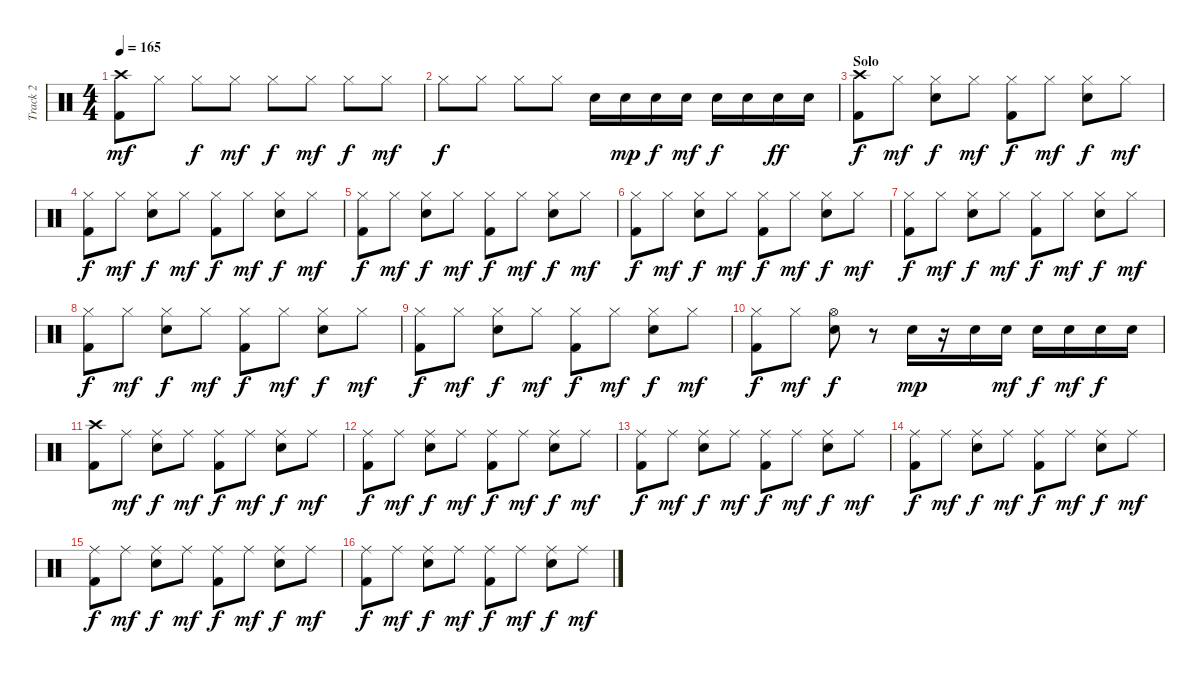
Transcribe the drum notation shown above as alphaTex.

\track ("Track 2" "Track 2") {instrument percussion}
\staff {score}
\articulation defaults
\ts (4 4)
\tempo 165
\clef neutral
\ks c
("Crash high (hit)" "Kick (hit) 2").8{dy mf} "Hi-Hat (closed)".8 "Hi-Hat (closed)".8{dy f} "Hi-Hat (closed)".8{dy mf} "Hi-Hat (closed)".8{dy f} "Hi-Hat (closed)".8{dy mf} "Hi-Hat (closed)".8{dy f} "Hi-Hat (closed)".8{dy mf} |
"Hi-Hat (closed)".8{dy f} "Hi-Hat (closed)".8 "Hi-Hat (closed)".8 "Hi-Hat (closed)".8 "Electric Snare (hit)".16 "Electric Snare (hit)".16{dy mp} "Electric Snare (hit)".16{dy f} "Electric Snare (hit)".16{dy mf} "Electric Snare (hit)".16{dy f} "Electric Snare (hit)".16 "Electric Snare (hit)".16{dy ff} "Electric Snare (hit)".16 |
\section ("" "Solo")
("Crash high (hit)" "Kick (hit) 2").8{dy f} "Hi-Hat (closed)".8{dy mf} ("Hi-Hat (closed)" "Electric Snare (hit)").8{dy f} "Hi-Hat (closed)".8{dy mf} ("Hi-Hat (closed)" "Kick (hit) 2").8{dy f} "Hi-Hat (closed)".8{dy mf} ("Hi-Hat (closed)" "Electric Snare (hit)").8{dy f} "Hi-Hat (closed)".8{dy mf} |
("Hi-Hat (closed)" "Kick (hit) 2").8{dy f} "Hi-Hat (closed)".8{dy mf} ("Hi-Hat (closed)" "Electric Snare (hit)").8{dy f} "Hi-Hat (closed)".8{dy mf} ("Hi-Hat (closed)" "Kick (hit) 2").8{dy f} "Hi-Hat (closed)".8{dy mf} ("Hi-Hat (closed)" "Electric Snare (hit)").8{dy f} "Hi-Hat (closed)".8{dy mf} |
("Hi-Hat (closed)" "Kick (hit) 2").8{dy f} "Hi-Hat (closed)".8{dy mf} ("Hi-Hat (closed)" "Electric Snare (hit)").8{dy f} "Hi-Hat (closed)".8{dy mf} ("Hi-Hat (closed)" "Kick (hit) 2").8{dy f} "Hi-Hat (closed)".8{dy mf} ("Hi-Hat (closed)" "Electric Snare (hit)").8{dy f} "Hi-Hat (closed)".8{dy mf} |
("Hi-Hat (closed)" "Kick (hit) 2").8{dy f} "Hi-Hat (closed)".8{dy mf} ("Hi-Hat (closed)" "Electric Snare (hit)").8{dy f} "Hi-Hat (closed)".8{dy mf} ("Hi-Hat (closed)" "Kick (hit) 2").8{dy f} "Hi-Hat (closed)".8{dy mf} ("Hi-Hat (closed)" "Electric Snare (hit)").8{dy f} "Hi-Hat (closed)".8{dy mf} |
("Hi-Hat (closed)" "Kick (hit) 2").8{dy f} "Hi-Hat (closed)".8{dy mf} ("Hi-Hat (closed)" "Electric Snare (hit)").8{dy f} "Hi-Hat (closed)".8{dy mf} ("Hi-Hat (closed)" "Kick (hit) 2").8{dy f} "Hi-Hat (closed)".8{dy mf} ("Hi-Hat (closed)" "Electric Snare (hit)").8{dy f} "Hi-Hat (closed)".8{dy mf} |
("Hi-Hat (closed)" "Kick (hit) 2").8{dy f} "Hi-Hat (closed)".8{dy mf} ("Hi-Hat (closed)" "Electric Snare (hit)").8{dy f} "Hi-Hat (closed)".8{dy mf} ("Hi-Hat (closed)" "Kick (hit) 2").8{dy f} "Hi-Hat (closed)".8{dy mf} ("Hi-Hat (closed)" "Electric Snare (hit)").8{dy f} "Hi-Hat (closed)".8{dy mf} |
("Hi-Hat (closed)" "Kick (hit) 2").8{dy f} "Hi-Hat (closed)".8{dy mf} ("Hi-Hat (closed)" "Electric Snare (hit)").8{dy f} "Hi-Hat (closed)".8{dy mf} ("Hi-Hat (closed)" "Kick (hit) 2").8{dy f} "Hi-Hat (closed)".8{dy mf} ("Hi-Hat (closed)" "Electric Snare (hit)").8{dy f} "Hi-Hat (closed)".8{dy mf} |
("Hi-Hat (closed)" "Kick (hit) 2").8{dy f} "Hi-Hat (closed)".8{dy mf} ("Hi-Hat (open)" "Electric Snare (hit)").8{dy f} r.8 "Electric Snare (hit)".16{dy mp} r.16 "Electric Snare (hit)".16 "Electric Snare (hit)".16{dy mf} "Electric Snare (hit)".16{dy f} "Electric Snare (hit)".16{dy mf} "Electric Snare (hit)".16{dy f} "Electric Snare (hit)".16 |
("Crash high (hit)" "Kick (hit) 2").8 "Ride (middle)".8{dy mf} ("Ride (middle)" "Electric Snare (hit)").8{dy f} "Ride (middle)".8{dy mf} ("Ride (middle)" "Kick (hit) 2").8{dy f} "Ride (middle)".8{dy mf} ("Ride (middle)" "Electric Snare (hit)").8{dy f} "Ride (middle)".8{dy mf} |
("Ride (middle)" "Kick (hit) 2").8{dy f} "Ride (middle)".8{dy mf} ("Ride (middle)" "Electric Snare (hit)").8{dy f} "Ride (middle)".8{dy mf} ("Ride (middle)" "Kick (hit) 2").8{dy f} "Ride (middle)".8{dy mf} ("Ride (middle)" "Electric Snare (hit)").8{dy f} "Ride (middle)".8{dy mf} |
("Ride (middle)" "Kick (hit) 2").8{dy f} "Ride (middle)".8{dy mf} ("Ride (middle)" "Electric Snare (hit)").8{dy f} "Ride (middle)".8{dy mf} ("Ride (middle)" "Kick (hit) 2").8{dy f} "Ride (middle)".8{dy mf} ("Ride (middle)" "Electric Snare (hit)").8{dy f} "Ride (middle)".8{dy mf} |
("Ride (middle)" "Kick (hit) 2").8{dy f} "Ride (middle)".8{dy mf} ("Ride (middle)" "Electric Snare (hit)").8{dy f} "Ride (middle)".8{dy mf} ("Ride (middle)" "Kick (hit) 2").8{dy f} "Ride (middle)".8{dy mf} ("Ride (middle)" "Electric Snare (hit)").8{dy f} "Ride (middle)".8{dy mf} |
("Ride (middle)" "Kick (hit) 2").8{dy f} "Ride (middle)".8{dy mf} ("Ride (middle)" "Electric Snare (hit)").8{dy f} "Ride (middle)".8{dy mf} ("Ride (middle)" "Kick (hit) 2").8{dy f} "Ride (middle)".8{dy mf} ("Ride (middle)" "Electric Snare (hit)").8{dy f} "Ride (middle)".8{dy mf} |
("Ride (middle)" "Kick (hit) 2").8{dy f} "Ride (middle)".8{dy mf} ("Ride (middle)" "Electric Snare (hit)").8{dy f} "Ride (middle)".8{dy mf} ("Ride (middle)" "Kick (hit) 2").8{dy f} "Ride (middle)".8{dy mf} ("Ride (middle)" "Electric Snare (hit)").8{dy f} "Ride (middle)".8{dy mf}
